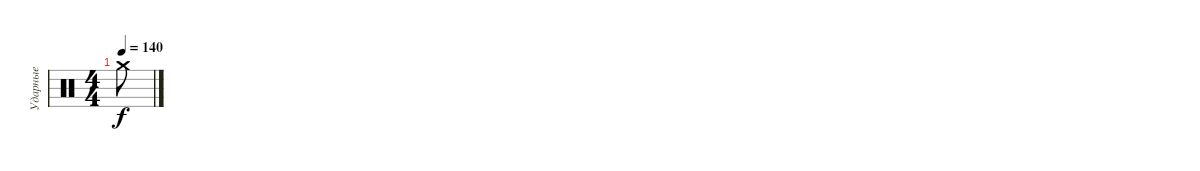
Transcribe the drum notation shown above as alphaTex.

\track ("Ударные" "Ударные") {instrument percussion}
\staff {score}
\articulation defaults
\ts (4 4)
\tempo 140
\clef neutral
\ks c "Crash medium (hit)".8{dy f}
